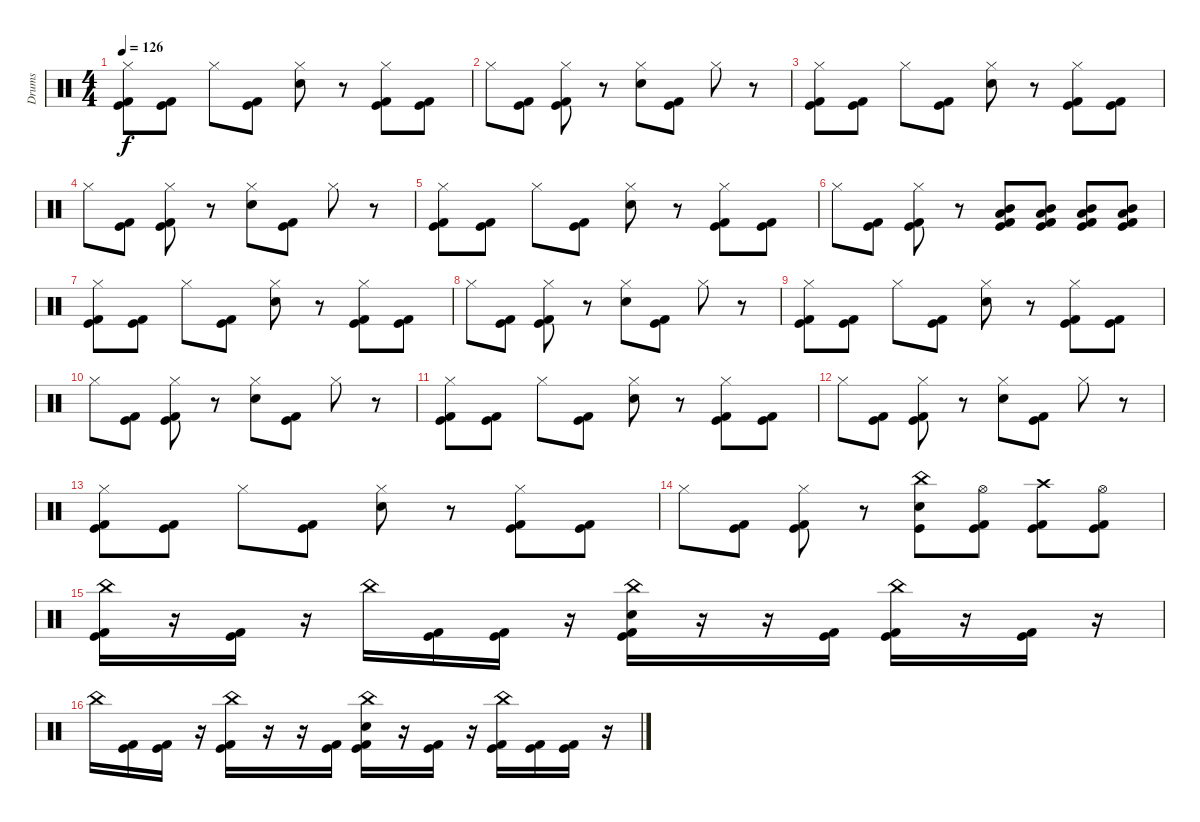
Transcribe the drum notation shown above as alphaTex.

\track ("Drums" "Drums") {instrument percussion}
\staff {score}
\articulation defaults
\ts (4 4)
\tempo 126
\clef neutral
\ks c
("Hi-Hat (closed)" "Kick (hit)" "Kick (hit) 2").8{dy f} ("Kick (hit)" "Kick (hit) 2").8 "Hi-Hat (closed)".8 ("Kick (hit)" "Kick (hit) 2").8 ("Hi-Hat (closed)" "Electric Snare (hit)").8 r.8 ("Hi-Hat (closed)" "Kick (hit)" "Kick (hit) 2").8 ("Kick (hit)" "Kick (hit) 2").8 |
"Hi-Hat (closed)".8 ("Kick (hit)" "Kick (hit) 2").8 ("Hi-Hat (closed)" "Kick (hit)" "Kick (hit) 2").8 r.8 ("Hi-Hat (closed)" "Electric Snare (hit)").8 ("Kick (hit)" "Kick (hit) 2").8 "Hi-Hat (closed)".8 r.8 |
("Hi-Hat (closed)" "Kick (hit)" "Kick (hit) 2").8 ("Kick (hit)" "Kick (hit) 2").8 "Hi-Hat (closed)".8 ("Kick (hit)" "Kick (hit) 2").8 ("Hi-Hat (closed)" "Electric Snare (hit)").8 r.8 ("Hi-Hat (closed)" "Kick (hit)" "Kick (hit) 2").8 ("Kick (hit)" "Kick (hit) 2").8 |
"Hi-Hat (closed)".8 ("Kick (hit)" "Kick (hit) 2").8 ("Hi-Hat (closed)" "Kick (hit)" "Kick (hit) 2").8 r.8 ("Hi-Hat (closed)" "Electric Snare (hit)").8 ("Kick (hit)" "Kick (hit) 2").8 "Hi-Hat (closed)".8 r.8 |
("Hi-Hat (closed)" "Kick (hit)" "Kick (hit) 2").8 ("Kick (hit)" "Kick (hit) 2").8 "Hi-Hat (closed)".8 ("Kick (hit)" "Kick (hit) 2").8 ("Hi-Hat (closed)" "Electric Snare (hit)").8 r.8 ("Hi-Hat (closed)" "Kick (hit)" "Kick (hit) 2").8 ("Kick (hit)" "Kick (hit) 2").8 |
"Hi-Hat (closed)".8 ("Kick (hit)" "Kick (hit) 2").8 ("Hi-Hat (closed)" "Kick (hit)" "Kick (hit) 2").8 r.8 ("Low Floor Tom (hit)" "Mid Tom (hit)" "Kick (hit)" "Kick (hit) 2").8 ("Low Floor Tom (hit)" "Mid Tom (hit)" "Kick (hit)" "Kick (hit) 2").8 ("Low Floor Tom (hit)" "Mid Tom (hit)" "Kick (hit)" "Kick (hit) 2").8 ("Low Floor Tom (hit)" "Mid Tom (hit)" "Kick (hit)" "Kick (hit) 2").8 |
("Hi-Hat (closed)" "Kick (hit)" "Kick (hit) 2").8 ("Kick (hit)" "Kick (hit) 2").8 "Hi-Hat (closed)".8 ("Kick (hit)" "Kick (hit) 2").8 ("Hi-Hat (closed)" "Electric Snare (hit)").8 r.8 ("Hi-Hat (closed)" "Kick (hit)" "Kick (hit) 2").8 ("Kick (hit)" "Kick (hit) 2").8 |
"Hi-Hat (closed)".8 ("Kick (hit)" "Kick (hit) 2").8 ("Hi-Hat (closed)" "Kick (hit)" "Kick (hit) 2").8 r.8 ("Hi-Hat (closed)" "Electric Snare (hit)").8 ("Kick (hit)" "Kick (hit) 2").8 "Hi-Hat (closed)".8 r.8 |
("Hi-Hat (closed)" "Kick (hit)" "Kick (hit) 2").8 ("Kick (hit)" "Kick (hit) 2").8 "Hi-Hat (closed)".8 ("Kick (hit)" "Kick (hit) 2").8 ("Hi-Hat (closed)" "Electric Snare (hit)").8 r.8 ("Hi-Hat (closed)" "Kick (hit)" "Kick (hit) 2").8 ("Kick (hit)" "Kick (hit) 2").8 |
"Hi-Hat (closed)".8 ("Kick (hit)" "Kick (hit) 2").8 ("Hi-Hat (closed)" "Kick (hit)" "Kick (hit) 2").8 r.8 ("Hi-Hat (closed)" "Electric Snare (hit)").8 ("Kick (hit)" "Kick (hit) 2").8 "Hi-Hat (closed)".8 r.8 |
("Hi-Hat (closed)" "Kick (hit)" "Kick (hit) 2").8 ("Kick (hit)" "Kick (hit) 2").8 "Hi-Hat (closed)".8 ("Kick (hit)" "Kick (hit) 2").8 ("Hi-Hat (closed)" "Electric Snare (hit)").8 r.8 ("Hi-Hat (closed)" "Kick (hit)" "Kick (hit) 2").8 ("Kick (hit)" "Kick (hit) 2").8 |
"Hi-Hat (closed)".8 ("Kick (hit)" "Kick (hit) 2").8 ("Hi-Hat (closed)" "Kick (hit)" "Kick (hit) 2").8 r.8 ("Hi-Hat (closed)" "Electric Snare (hit)").8 ("Kick (hit)" "Kick (hit) 2").8 "Hi-Hat (closed)".8 r.8 |
("Hi-Hat (closed)" "Kick (hit)" "Kick (hit) 2").8 ("Kick (hit)" "Kick (hit) 2").8 "Hi-Hat (closed)".8 ("Kick (hit)" "Kick (hit) 2").8 ("Hi-Hat (closed)" "Electric Snare (hit)").8 r.8 ("Hi-Hat (closed)" "Kick (hit)" "Kick (hit) 2").8 ("Kick (hit)" "Kick (hit) 2").8 |
"Hi-Hat (closed)".8 ("Kick (hit)" "Kick (hit) 2").8 ("Hi-Hat (closed)" "Kick (hit)" "Kick (hit) 2").8 r.8 ("China (hit)" "Electric Snare (hit)" "Kick (hit)").8 ("Hi-Hat (open)" "Kick (hit)" "Kick (hit) 2").8 ("Crash high (hit)" "Kick (hit)" "Kick (hit) 2").8 ("Hi-Hat (open)" "Kick (hit)" "Kick (hit) 2").8 |
("China (hit)" "Kick (hit)" "Kick (hit) 2").16 r.16 ("Kick (hit)" "Kick (hit) 2").16 r.16 "China (hit)".16 ("Kick (hit)" "Kick (hit) 2").16 ("Kick (hit)" "Kick (hit) 2").16 r.16 ("China (hit)" "Kick (hit)" "Electric Snare (hit)" "Kick (hit) 2").16 r.16 r.16 ("Kick (hit)" "Kick (hit) 2").16 ("China (hit)" "Kick (hit)" "Kick (hit) 2").16 r.16 ("Kick (hit)" "Kick (hit) 2").16 r.16 |
"China (hit)".16 ("Kick (hit)" "Kick (hit) 2").16 ("Kick (hit)" "Kick (hit) 2").16 r.16 ("China (hit)" "Kick (hit)" "Kick (hit) 2").16 r.16 r.16 ("Kick (hit)" "Kick (hit) 2").16 ("China (hit)" "Kick (hit)" "Electric Snare (hit)" "Kick (hit) 2").16 r.16 ("Kick (hit)" "Kick (hit) 2").16 r.16 ("China (hit)" "Kick (hit)" "Kick (hit) 2").16 ("Kick (hit)" "Kick (hit) 2").16 ("Kick (hit)" "Kick (hit) 2").16 r.16
